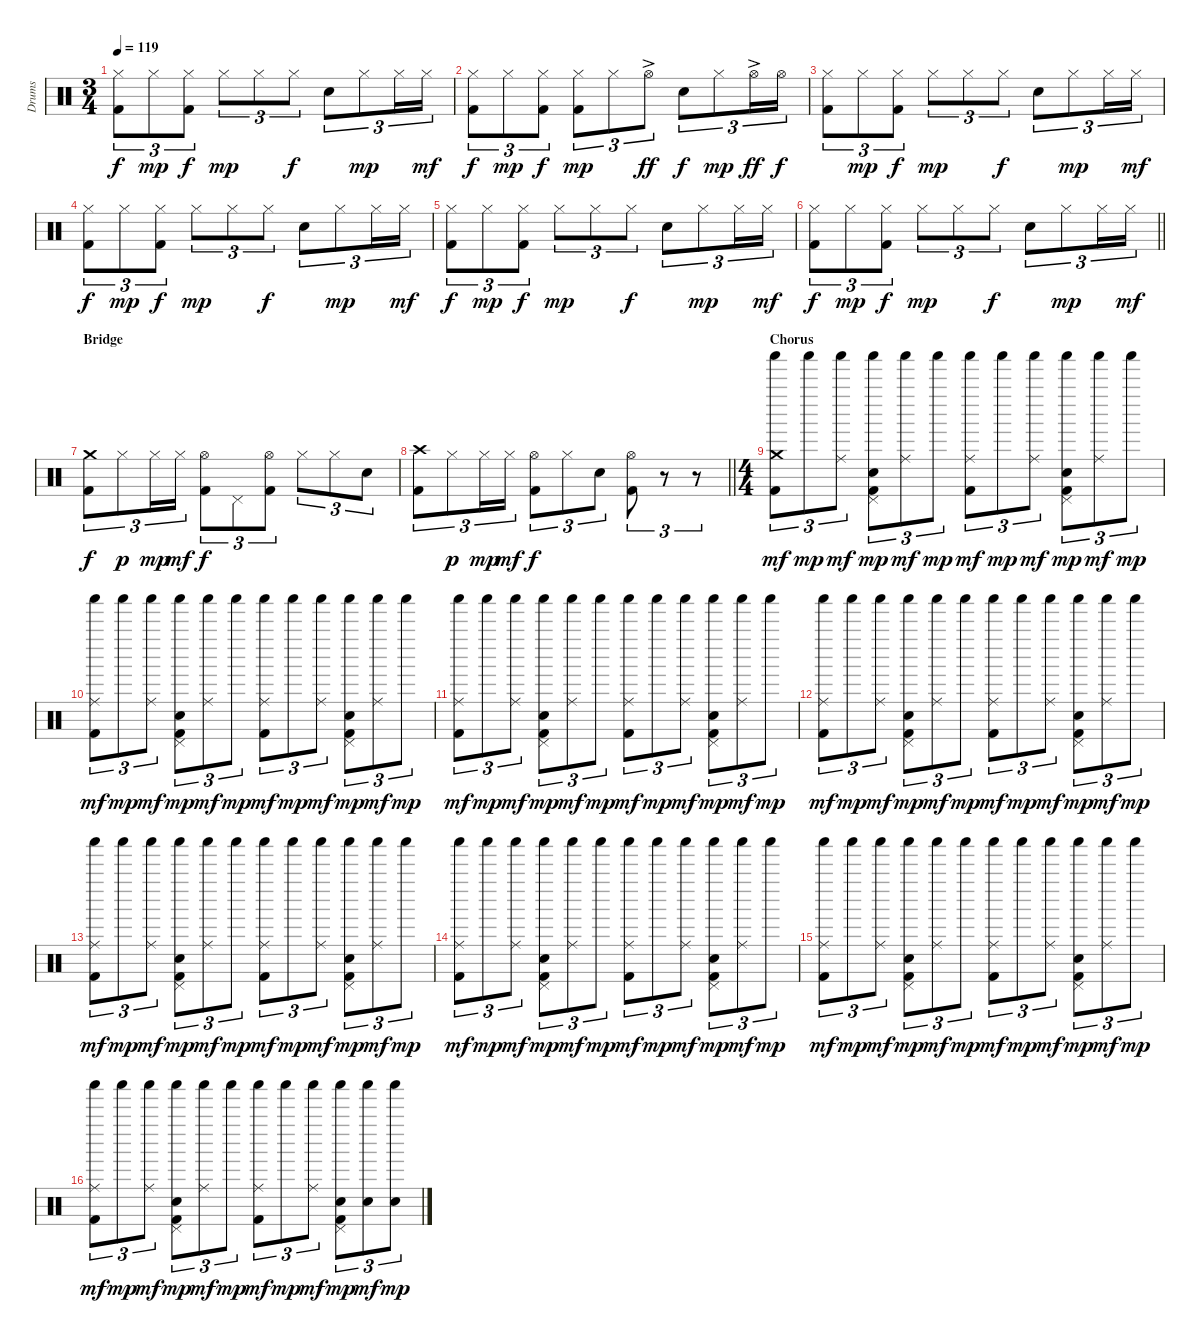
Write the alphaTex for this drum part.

\track ("Drums" "Drums") {instrument percussion}
\staff {score}
\articulation defaults
\ts (3 4)
\tempo 119
\clef neutral
\ks c
("Hi-Hat (closed)" "Kick (hit) 2").8{tu (3 2) dy f} "Hi-Hat (closed)".8{tu (3 2) dy mp} ("Hi-Hat (closed)" "Kick (hit) 2").8{tu (3 2) dy f} "Hi-Hat (closed)".8{tu (3 2) dy mp} "Hi-Hat (closed)".8{tu (3 2)} "Hi-Hat (closed)".8{tu (3 2) dy f} "Electric Snare (hit)".8{tu (3 2)} "Hi-Hat (closed)".8{tu (3 2) dy mp} "Hi-Hat (closed)".16{tu (3 2)} "Hi-Hat (closed)".16{tu (3 2) dy mf} |
("Hi-Hat (closed)" "Kick (hit) 2").8{tu (3 2) dy f} "Hi-Hat (closed)".8{tu (3 2) dy mp} ("Hi-Hat (closed)" "Kick (hit) 2").8{tu (3 2) dy f} ("Hi-Hat (closed)" "Kick (hit) 2").8{tu (3 2) dy mp} "Hi-Hat (closed)".8{tu (3 2)} "Hi-Hat (open)"{ac}.8{tu (3 2) dy ff} "Electric Snare (hit)".8{tu (3 2) dy f} "Hi-Hat (closed)".8{tu (3 2) dy mp} "Hi-Hat (open)"{ac}.16{tu (3 2) dy ff} "Hi-Hat (open)".16{tu (3 2) dy f} |
("Hi-Hat (closed)" "Kick (hit) 2").8{tu (3 2)} "Hi-Hat (closed)".8{tu (3 2) dy mp} ("Hi-Hat (closed)" "Kick (hit) 2").8{tu (3 2) dy f} "Hi-Hat (closed)".8{tu (3 2) dy mp} "Hi-Hat (closed)".8{tu (3 2)} "Hi-Hat (closed)".8{tu (3 2) dy f} "Electric Snare (hit)".8{tu (3 2)} "Hi-Hat (closed)".8{tu (3 2) dy mp} "Hi-Hat (closed)".16{tu (3 2)} "Hi-Hat (closed)".16{tu (3 2) dy mf} |
("Hi-Hat (closed)" "Kick (hit) 2").8{tu (3 2) dy f} "Hi-Hat (closed)".8{tu (3 2) dy mp} ("Hi-Hat (closed)" "Kick (hit) 2").8{tu (3 2) dy f} "Hi-Hat (closed)".8{tu (3 2) dy mp} "Hi-Hat (closed)".8{tu (3 2)} "Hi-Hat (closed)".8{tu (3 2) dy f} "Electric Snare (hit)".8{tu (3 2)} "Hi-Hat (closed)".8{tu (3 2) dy mp} "Hi-Hat (closed)".16{tu (3 2)} "Hi-Hat (closed)".16{tu (3 2) dy mf} |
("Hi-Hat (closed)" "Kick (hit) 2").8{tu (3 2) dy f} "Hi-Hat (closed)".8{tu (3 2) dy mp} ("Hi-Hat (closed)" "Kick (hit) 2").8{tu (3 2) dy f} "Hi-Hat (closed)".8{tu (3 2) dy mp} "Hi-Hat (closed)".8{tu (3 2)} "Hi-Hat (closed)".8{tu (3 2) dy f} "Electric Snare (hit)".8{tu (3 2)} "Hi-Hat (closed)".8{tu (3 2) dy mp} "Hi-Hat (closed)".16{tu (3 2)} "Hi-Hat (closed)".16{tu (3 2) dy mf} |
\barLineRight lightlight
("Hi-Hat (closed)" "Kick (hit) 2").8{tu (3 2) dy f} "Hi-Hat (closed)".8{tu (3 2) dy mp} ("Hi-Hat (closed)" "Kick (hit) 2").8{tu (3 2) dy f} "Hi-Hat (closed)".8{tu (3 2) dy mp} "Hi-Hat (closed)".8{tu (3 2)} "Hi-Hat (closed)".8{tu (3 2) dy f} "Electric Snare (hit)".8{tu (3 2)} "Hi-Hat (closed)".8{tu (3 2) dy mp} "Hi-Hat (closed)".16{tu (3 2)} "Hi-Hat (closed)".16{tu (3 2) dy mf} |
\section ("" "Bridge")
("Crash medium (hit)" "Kick (hit) 2").8{tu (3 2) dy f} "Hi-Hat (closed)".8{tu (3 2) dy p} "Hi-Hat (closed)".16{tu (3 2) dy mp} "Hi-Hat (closed)".16{tu (3 2) dy mf} ("Hi-Hat (open)" "Kick (hit) 2").8{tu (3 2) dy f} "Pedal Hi-Hat (hit)".8{tu (3 2)} ("Hi-Hat (open)" "Kick (hit) 2").8{tu (3 2)} "Hi-Hat (closed)".8{tu (3 2)} "Hi-Hat (closed)".8{tu (3 2)} "Electric Snare (hit)".8{tu (3 2)} |
\barLineRight lightlight
("Crash high (hit)" "Kick (hit) 2").8{tu (3 2)} "Hi-Hat (closed)".8{tu (3 2) dy p} "Hi-Hat (closed)".16{tu (3 2) dy mp} "Hi-Hat (closed)".16{tu (3 2) dy mf} ("Hi-Hat (open)" "Kick (hit) 2").8{tu (3 2) dy f} "Hi-Hat (closed)".8{tu (3 2)} "Electric Snare (hit)".8{tu (3 2)} ("Hi-Hat (open)" "Kick (hit) 2").8{tu (3 2)} r.8{tu (3 2)} r.8{tu (3 2)} |
\ts (4 4)
\section ("" "Chorus")
("Crash medium (hit)" "Shaker (hit)" "Kick (hit) 2").8{tu (3 2) dy mf} "Shaker (hit)".8{tu (3 2) dy mp} ("Ride (middle)" "Shaker (hit)").8{tu (3 2) dy mf} ("Pedal Hi-Hat (hit)" "Shaker (hit)" "Electric Snare (hit)" "Kick (hit) 2").8{tu (3 2) dy mp} ("Ride (middle)" "Shaker (hit)").8{tu (3 2) dy mf} "Shaker (hit)".8{tu (3 2) dy mp} ("Ride (middle)" "Shaker (hit)" "Kick (hit) 2").8{tu (3 2) dy mf} "Shaker (hit)".8{tu (3 2) dy mp} ("Ride (middle)" "Shaker (hit)").8{tu (3 2) dy mf} ("Pedal Hi-Hat (hit)" "Shaker (hit)" "Electric Snare (hit)" "Kick (hit) 2").8{tu (3 2) dy mp} ("Ride (middle)" "Shaker (hit)").8{tu (3 2) dy mf} "Shaker (hit)".8{tu (3 2) dy mp} |
("Ride (middle)" "Shaker (hit)" "Kick (hit) 2").8{tu (3 2) dy mf} "Shaker (hit)".8{tu (3 2) dy mp} ("Ride (middle)" "Shaker (hit)").8{tu (3 2) dy mf} ("Pedal Hi-Hat (hit)" "Shaker (hit)" "Electric Snare (hit)" "Kick (hit) 2").8{tu (3 2) dy mp} ("Ride (middle)" "Shaker (hit)").8{tu (3 2) dy mf} "Shaker (hit)".8{tu (3 2) dy mp} ("Ride (middle)" "Shaker (hit)" "Kick (hit) 2").8{tu (3 2) dy mf} "Shaker (hit)".8{tu (3 2) dy mp} ("Ride (middle)" "Shaker (hit)").8{tu (3 2) dy mf} ("Pedal Hi-Hat (hit)" "Shaker (hit)" "Electric Snare (hit)" "Kick (hit) 2").8{tu (3 2) dy mp} ("Ride (middle)" "Shaker (hit)").8{tu (3 2) dy mf} "Shaker (hit)".8{tu (3 2) dy mp} |
("Ride (middle)" "Shaker (hit)" "Kick (hit) 2").8{tu (3 2) dy mf} "Shaker (hit)".8{tu (3 2) dy mp} ("Ride (middle)" "Shaker (hit)").8{tu (3 2) dy mf} ("Pedal Hi-Hat (hit)" "Shaker (hit)" "Electric Snare (hit)" "Kick (hit) 2").8{tu (3 2) dy mp} ("Ride (middle)" "Shaker (hit)").8{tu (3 2) dy mf} "Shaker (hit)".8{tu (3 2) dy mp} ("Ride (middle)" "Shaker (hit)" "Kick (hit) 2").8{tu (3 2) dy mf} "Shaker (hit)".8{tu (3 2) dy mp} ("Ride (middle)" "Shaker (hit)").8{tu (3 2) dy mf} ("Pedal Hi-Hat (hit)" "Shaker (hit)" "Electric Snare (hit)" "Kick (hit) 2").8{tu (3 2) dy mp} ("Ride (middle)" "Shaker (hit)").8{tu (3 2) dy mf} "Shaker (hit)".8{tu (3 2) dy mp} |
("Ride (middle)" "Shaker (hit)" "Kick (hit) 2").8{tu (3 2) dy mf} "Shaker (hit)".8{tu (3 2) dy mp} ("Ride (middle)" "Shaker (hit)").8{tu (3 2) dy mf} ("Pedal Hi-Hat (hit)" "Shaker (hit)" "Electric Snare (hit)" "Kick (hit) 2").8{tu (3 2) dy mp} ("Ride (middle)" "Shaker (hit)").8{tu (3 2) dy mf} "Shaker (hit)".8{tu (3 2) dy mp} ("Ride (middle)" "Shaker (hit)" "Kick (hit) 2").8{tu (3 2) dy mf} "Shaker (hit)".8{tu (3 2) dy mp} ("Ride (middle)" "Shaker (hit)").8{tu (3 2) dy mf} ("Pedal Hi-Hat (hit)" "Shaker (hit)" "Electric Snare (hit)" "Kick (hit) 2").8{tu (3 2) dy mp} ("Ride (middle)" "Shaker (hit)").8{tu (3 2) dy mf} "Shaker (hit)".8{tu (3 2) dy mp} |
("Ride (middle)" "Shaker (hit)" "Kick (hit) 2").8{tu (3 2) dy mf} "Shaker (hit)".8{tu (3 2) dy mp} ("Ride (middle)" "Shaker (hit)").8{tu (3 2) dy mf} ("Pedal Hi-Hat (hit)" "Shaker (hit)" "Electric Snare (hit)" "Kick (hit) 2").8{tu (3 2) dy mp} ("Ride (middle)" "Shaker (hit)").8{tu (3 2) dy mf} "Shaker (hit)".8{tu (3 2) dy mp} ("Ride (middle)" "Shaker (hit)" "Kick (hit) 2").8{tu (3 2) dy mf} "Shaker (hit)".8{tu (3 2) dy mp} ("Ride (middle)" "Shaker (hit)").8{tu (3 2) dy mf} ("Pedal Hi-Hat (hit)" "Shaker (hit)" "Electric Snare (hit)" "Kick (hit) 2").8{tu (3 2) dy mp} ("Ride (middle)" "Shaker (hit)").8{tu (3 2) dy mf} "Shaker (hit)".8{tu (3 2) dy mp} |
("Ride (middle)" "Shaker (hit)" "Kick (hit) 2").8{tu (3 2) dy mf} "Shaker (hit)".8{tu (3 2) dy mp} ("Ride (middle)" "Shaker (hit)").8{tu (3 2) dy mf} ("Pedal Hi-Hat (hit)" "Shaker (hit)" "Electric Snare (hit)" "Kick (hit) 2").8{tu (3 2) dy mp} ("Ride (middle)" "Shaker (hit)").8{tu (3 2) dy mf} "Shaker (hit)".8{tu (3 2) dy mp} ("Ride (middle)" "Shaker (hit)" "Kick (hit) 2").8{tu (3 2) dy mf} "Shaker (hit)".8{tu (3 2) dy mp} ("Ride (middle)" "Shaker (hit)").8{tu (3 2) dy mf} ("Pedal Hi-Hat (hit)" "Shaker (hit)" "Electric Snare (hit)" "Kick (hit) 2").8{tu (3 2) dy mp} ("Ride (middle)" "Shaker (hit)").8{tu (3 2) dy mf} "Shaker (hit)".8{tu (3 2) dy mp} |
("Ride (middle)" "Shaker (hit)" "Kick (hit) 2").8{tu (3 2) dy mf} "Shaker (hit)".8{tu (3 2) dy mp} ("Ride (middle)" "Shaker (hit)").8{tu (3 2) dy mf} ("Pedal Hi-Hat (hit)" "Shaker (hit)" "Electric Snare (hit)" "Kick (hit) 2").8{tu (3 2) dy mp} ("Ride (middle)" "Shaker (hit)").8{tu (3 2) dy mf} "Shaker (hit)".8{tu (3 2) dy mp} ("Ride (middle)" "Shaker (hit)" "Kick (hit) 2").8{tu (3 2) dy mf} "Shaker (hit)".8{tu (3 2) dy mp} ("Ride (middle)" "Shaker (hit)").8{tu (3 2) dy mf} ("Pedal Hi-Hat (hit)" "Shaker (hit)" "Electric Snare (hit)" "Kick (hit) 2").8{tu (3 2) dy mp} ("Ride (middle)" "Shaker (hit)").8{tu (3 2) dy mf} "Shaker (hit)".8{tu (3 2) dy mp} |
("Ride (middle)" "Shaker (hit)" "Kick (hit) 2").8{tu (3 2) dy mf} "Shaker (hit)".8{tu (3 2) dy mp} ("Ride (middle)" "Shaker (hit)").8{tu (3 2) dy mf} ("Pedal Hi-Hat (hit)" "Shaker (hit)" "Electric Snare (hit)" "Kick (hit) 2").8{tu (3 2) dy mp} ("Ride (middle)" "Shaker (hit)").8{tu (3 2) dy mf} "Shaker (hit)".8{tu (3 2) dy mp} ("Ride (middle)" "Shaker (hit)" "Kick (hit) 2").8{tu (3 2) dy mf} "Shaker (hit)".8{tu (3 2) dy mp} ("Ride (middle)" "Shaker (hit)").8{tu (3 2) dy mf} ("Pedal Hi-Hat (hit)" "Shaker (hit)" "Electric Snare (hit)" "Kick (hit) 2").8{tu (3 2) dy mp} ("Shaker (hit)" "Electric Snare (hit)").8{tu (3 2) dy mf} ("Shaker (hit)" "Electric Snare (hit)").8{tu (3 2) dy mp}
